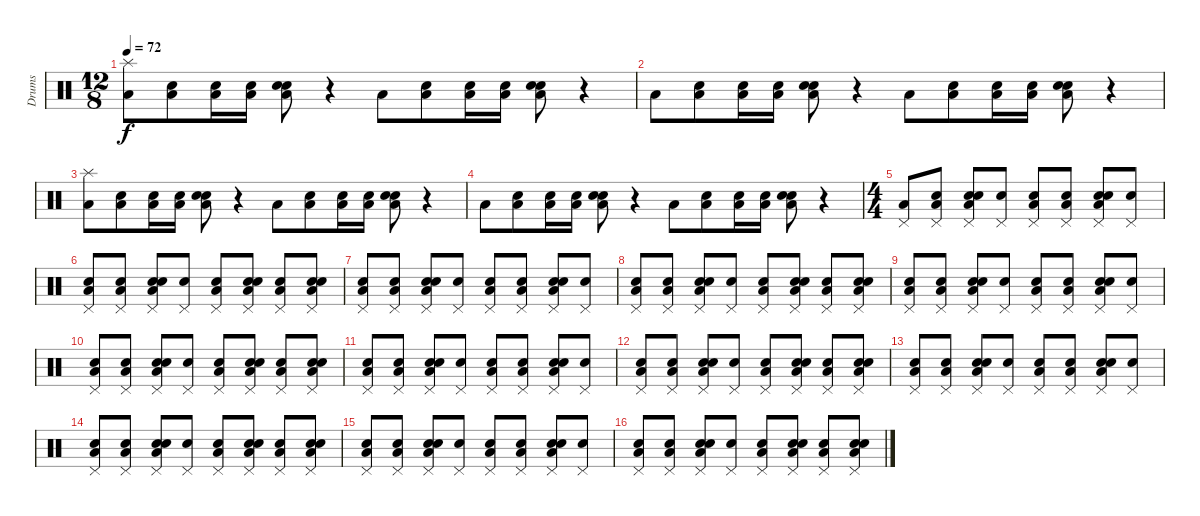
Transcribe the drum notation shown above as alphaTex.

\track ("Drums" "Drums") {instrument percussion}
\staff {score}
\articulation defaults
\ts (12 8)
\tempo 72
\clef neutral
\ks c
("Low Floor Tom (hit)" "Splash (hit)").8{dy f} ("Snare (hit)" "Low Floor Tom (hit)").8 ("Snare (hit)" "Low Floor Tom (hit)").16 ("Snare (hit)" "Low Floor Tom (hit)").16 ("Snare (hit)" "Electric Snare (hit)" "Low Floor Tom (hit)").8 r.4 "Low Floor Tom (hit)".8 ("Snare (hit)" "Low Floor Tom (hit)").8 ("Snare (hit)" "Low Floor Tom (hit)").16 ("Snare (hit)" "Low Floor Tom (hit)").16 ("Snare (hit)" "Electric Snare (hit)" "Low Floor Tom (hit)").8 r.4 |
"Low Floor Tom (hit)".8 ("Snare (hit)" "Low Floor Tom (hit)").8 ("Snare (hit)" "Low Floor Tom (hit)").16 ("Snare (hit)" "Low Floor Tom (hit)").16 ("Snare (hit)" "Electric Snare (hit)" "Low Floor Tom (hit)").8 r.4 "Low Floor Tom (hit)".8 ("Snare (hit)" "Low Floor Tom (hit)").8 ("Snare (hit)" "Low Floor Tom (hit)").16 ("Snare (hit)" "Low Floor Tom (hit)").16 ("Snare (hit)" "Electric Snare (hit)" "Low Floor Tom (hit)").8 r.4 |
("Low Floor Tom (hit)" "Splash (hit)").8 ("Snare (hit)" "Low Floor Tom (hit)").8 ("Snare (hit)" "Low Floor Tom (hit)").16 ("Snare (hit)" "Low Floor Tom (hit)").16 ("Snare (hit)" "Electric Snare (hit)" "Low Floor Tom (hit)").8 r.4 "Low Floor Tom (hit)".8 ("Snare (hit)" "Low Floor Tom (hit)").8 ("Snare (hit)" "Low Floor Tom (hit)").16 ("Snare (hit)" "Low Floor Tom (hit)").16 ("Snare (hit)" "Electric Snare (hit)" "Low Floor Tom (hit)").8 r.4 |
"Low Floor Tom (hit)".8 ("Snare (hit)" "Low Floor Tom (hit)").8 ("Snare (hit)" "Low Floor Tom (hit)").16 ("Snare (hit)" "Low Floor Tom (hit)").16 ("Snare (hit)" "Electric Snare (hit)" "Low Floor Tom (hit)").8 r.4 "Low Floor Tom (hit)".8 ("Snare (hit)" "Low Floor Tom (hit)").8 ("Snare (hit)" "Low Floor Tom (hit)").16 ("Snare (hit)" "Low Floor Tom (hit)").16 ("Snare (hit)" "Electric Snare (hit)" "Low Floor Tom (hit)").8 r.4 |
\ts (4 4)
("Low Floor Tom (hit)" "Pedal Hi-Hat (hit)").8 ("Snare (hit)" "Low Floor Tom (hit)" "Pedal Hi-Hat (hit)").8 ("Snare (hit)" "Electric Snare (hit)" "Low Floor Tom (hit)" "Pedal Hi-Hat (hit)").8 ("Snare (hit)" "Pedal Hi-Hat (hit)").8 ("Snare (hit)" "Low Floor Tom (hit)" "Pedal Hi-Hat (hit)").8 ("Snare (hit)" "Low Floor Tom (hit)" "Pedal Hi-Hat (hit)").8 ("Snare (hit)" "Electric Snare (hit)" "Low Floor Tom (hit)" "Pedal Hi-Hat (hit)").8 ("Snare (hit)" "Pedal Hi-Hat (hit)").8 |
("Snare (hit)" "Low Floor Tom (hit)" "Pedal Hi-Hat (hit)").8 ("Snare (hit)" "Low Floor Tom (hit)" "Pedal Hi-Hat (hit)").8 ("Snare (hit)" "Electric Snare (hit)" "Low Floor Tom (hit)" "Pedal Hi-Hat (hit)").8 ("Snare (hit)" "Pedal Hi-Hat (hit)").8 ("Snare (hit)" "Low Floor Tom (hit)" "Pedal Hi-Hat (hit)").8 ("Snare (hit)" "Electric Snare (hit)" "Low Floor Tom (hit)" "Pedal Hi-Hat (hit)").8 ("Snare (hit)" "Low Floor Tom (hit)" "Pedal Hi-Hat (hit)").8 ("Snare (hit)" "Electric Snare (hit)" "Low Floor Tom (hit)" "Pedal Hi-Hat (hit)").8 |
("Snare (hit)" "Low Floor Tom (hit)" "Pedal Hi-Hat (hit)").8 ("Snare (hit)" "Low Floor Tom (hit)" "Pedal Hi-Hat (hit)").8 ("Snare (hit)" "Electric Snare (hit)" "Low Floor Tom (hit)" "Pedal Hi-Hat (hit)").8 ("Snare (hit)" "Pedal Hi-Hat (hit)").8 ("Snare (hit)" "Low Floor Tom (hit)" "Pedal Hi-Hat (hit)").8 ("Snare (hit)" "Low Floor Tom (hit)" "Pedal Hi-Hat (hit)").8 ("Snare (hit)" "Electric Snare (hit)" "Low Floor Tom (hit)" "Pedal Hi-Hat (hit)").8 ("Snare (hit)" "Pedal Hi-Hat (hit)").8 |
("Snare (hit)" "Low Floor Tom (hit)" "Pedal Hi-Hat (hit)").8 ("Snare (hit)" "Low Floor Tom (hit)" "Pedal Hi-Hat (hit)").8 ("Snare (hit)" "Electric Snare (hit)" "Low Floor Tom (hit)" "Pedal Hi-Hat (hit)").8 ("Snare (hit)" "Pedal Hi-Hat (hit)").8 ("Snare (hit)" "Low Floor Tom (hit)" "Pedal Hi-Hat (hit)").8 ("Snare (hit)" "Electric Snare (hit)" "Low Floor Tom (hit)" "Pedal Hi-Hat (hit)").8 ("Snare (hit)" "Low Floor Tom (hit)" "Pedal Hi-Hat (hit)").8 ("Snare (hit)" "Electric Snare (hit)" "Low Floor Tom (hit)" "Pedal Hi-Hat (hit)").8 |
("Snare (hit)" "Low Floor Tom (hit)" "Pedal Hi-Hat (hit)").8 ("Snare (hit)" "Low Floor Tom (hit)" "Pedal Hi-Hat (hit)").8 ("Snare (hit)" "Electric Snare (hit)" "Low Floor Tom (hit)" "Pedal Hi-Hat (hit)").8 ("Snare (hit)" "Pedal Hi-Hat (hit)").8 ("Snare (hit)" "Low Floor Tom (hit)" "Pedal Hi-Hat (hit)").8 ("Snare (hit)" "Low Floor Tom (hit)" "Pedal Hi-Hat (hit)").8 ("Snare (hit)" "Electric Snare (hit)" "Low Floor Tom (hit)" "Pedal Hi-Hat (hit)").8 ("Snare (hit)" "Pedal Hi-Hat (hit)").8 |
("Snare (hit)" "Low Floor Tom (hit)" "Pedal Hi-Hat (hit)").8 ("Snare (hit)" "Low Floor Tom (hit)" "Pedal Hi-Hat (hit)").8 ("Snare (hit)" "Electric Snare (hit)" "Low Floor Tom (hit)" "Pedal Hi-Hat (hit)").8 ("Snare (hit)" "Pedal Hi-Hat (hit)").8 ("Snare (hit)" "Low Floor Tom (hit)" "Pedal Hi-Hat (hit)").8 ("Snare (hit)" "Electric Snare (hit)" "Low Floor Tom (hit)" "Pedal Hi-Hat (hit)").8 ("Snare (hit)" "Low Floor Tom (hit)" "Pedal Hi-Hat (hit)").8 ("Snare (hit)" "Electric Snare (hit)" "Low Floor Tom (hit)" "Pedal Hi-Hat (hit)").8 |
("Snare (hit)" "Low Floor Tom (hit)" "Pedal Hi-Hat (hit)").8 ("Snare (hit)" "Low Floor Tom (hit)" "Pedal Hi-Hat (hit)").8 ("Snare (hit)" "Electric Snare (hit)" "Low Floor Tom (hit)" "Pedal Hi-Hat (hit)").8 ("Snare (hit)" "Pedal Hi-Hat (hit)").8 ("Snare (hit)" "Low Floor Tom (hit)" "Pedal Hi-Hat (hit)").8 ("Snare (hit)" "Low Floor Tom (hit)" "Pedal Hi-Hat (hit)").8 ("Snare (hit)" "Electric Snare (hit)" "Low Floor Tom (hit)" "Pedal Hi-Hat (hit)").8 ("Snare (hit)" "Pedal Hi-Hat (hit)").8 |
("Snare (hit)" "Low Floor Tom (hit)" "Pedal Hi-Hat (hit)").8 ("Snare (hit)" "Low Floor Tom (hit)" "Pedal Hi-Hat (hit)").8 ("Snare (hit)" "Electric Snare (hit)" "Low Floor Tom (hit)" "Pedal Hi-Hat (hit)").8 ("Snare (hit)" "Pedal Hi-Hat (hit)").8 ("Snare (hit)" "Low Floor Tom (hit)" "Pedal Hi-Hat (hit)").8 ("Snare (hit)" "Electric Snare (hit)" "Low Floor Tom (hit)" "Pedal Hi-Hat (hit)").8 ("Snare (hit)" "Low Floor Tom (hit)" "Pedal Hi-Hat (hit)").8 ("Snare (hit)" "Electric Snare (hit)" "Low Floor Tom (hit)" "Pedal Hi-Hat (hit)").8 |
("Snare (hit)" "Low Floor Tom (hit)" "Pedal Hi-Hat (hit)").8 ("Snare (hit)" "Low Floor Tom (hit)" "Pedal Hi-Hat (hit)").8 ("Snare (hit)" "Electric Snare (hit)" "Low Floor Tom (hit)" "Pedal Hi-Hat (hit)").8 ("Snare (hit)" "Pedal Hi-Hat (hit)").8 ("Snare (hit)" "Low Floor Tom (hit)" "Pedal Hi-Hat (hit)").8 ("Snare (hit)" "Low Floor Tom (hit)" "Pedal Hi-Hat (hit)").8 ("Snare (hit)" "Electric Snare (hit)" "Low Floor Tom (hit)" "Pedal Hi-Hat (hit)").8 ("Snare (hit)" "Pedal Hi-Hat (hit)").8 |
("Snare (hit)" "Low Floor Tom (hit)" "Pedal Hi-Hat (hit)").8 ("Snare (hit)" "Low Floor Tom (hit)" "Pedal Hi-Hat (hit)").8 ("Snare (hit)" "Electric Snare (hit)" "Low Floor Tom (hit)" "Pedal Hi-Hat (hit)").8 ("Snare (hit)" "Pedal Hi-Hat (hit)").8 ("Snare (hit)" "Low Floor Tom (hit)" "Pedal Hi-Hat (hit)").8 ("Snare (hit)" "Electric Snare (hit)" "Low Floor Tom (hit)" "Pedal Hi-Hat (hit)").8 ("Snare (hit)" "Low Floor Tom (hit)" "Pedal Hi-Hat (hit)").8 ("Snare (hit)" "Electric Snare (hit)" "Low Floor Tom (hit)" "Pedal Hi-Hat (hit)").8 |
("Snare (hit)" "Low Floor Tom (hit)" "Pedal Hi-Hat (hit)").8 ("Snare (hit)" "Low Floor Tom (hit)" "Pedal Hi-Hat (hit)").8 ("Snare (hit)" "Electric Snare (hit)" "Low Floor Tom (hit)" "Pedal Hi-Hat (hit)").8 ("Snare (hit)" "Pedal Hi-Hat (hit)").8 ("Snare (hit)" "Low Floor Tom (hit)" "Pedal Hi-Hat (hit)").8 ("Snare (hit)" "Low Floor Tom (hit)" "Pedal Hi-Hat (hit)").8 ("Snare (hit)" "Electric Snare (hit)" "Low Floor Tom (hit)" "Pedal Hi-Hat (hit)").8 ("Snare (hit)" "Pedal Hi-Hat (hit)").8 |
("Snare (hit)" "Low Floor Tom (hit)" "Pedal Hi-Hat (hit)").8 ("Snare (hit)" "Low Floor Tom (hit)" "Pedal Hi-Hat (hit)").8 ("Snare (hit)" "Electric Snare (hit)" "Low Floor Tom (hit)" "Pedal Hi-Hat (hit)").8 ("Snare (hit)" "Pedal Hi-Hat (hit)").8 ("Snare (hit)" "Low Floor Tom (hit)" "Pedal Hi-Hat (hit)").8 ("Snare (hit)" "Electric Snare (hit)" "Low Floor Tom (hit)" "Pedal Hi-Hat (hit)").8 ("Snare (hit)" "Low Floor Tom (hit)" "Pedal Hi-Hat (hit)").8 ("Snare (hit)" "Electric Snare (hit)" "Low Floor Tom (hit)" "Pedal Hi-Hat (hit)").8
